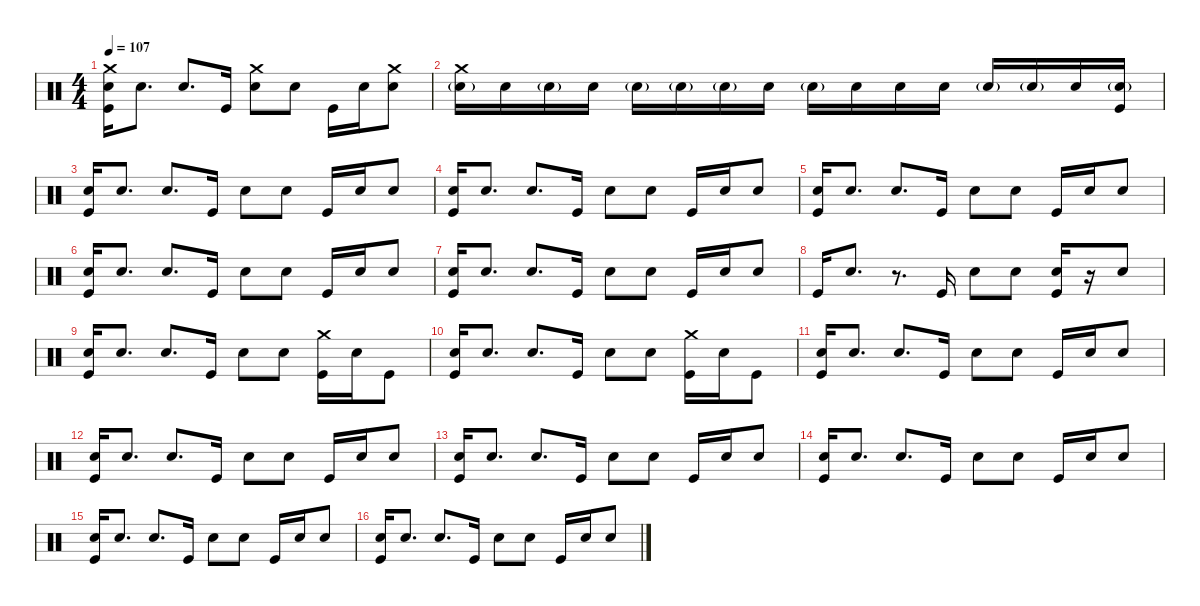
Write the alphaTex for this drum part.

\defaultSystemsLayout 4
\hideDynamics
\bracketExtendMode nobrackets
\singleTrackTrackNamePolicy hidden
\multiTrackTrackNamePolicy hidden
\firstSystemTrackNameMode fullname
\firstSystemTrackNameOrientation horizontal
\otherSystemsTrackNameOrientation horizontal
\track ("Mitch" "drm.") {instrument percussion}
\staff {score}
\articulation defaults
\ts (4 4)
\tempo 107
\clef neutral
\ks c
("Snare (hit) 2" "Crash medium (hit)" "Kick (hit)").16{dy f beam Down} "Snare (hit) 2".8{d beam Down} "Snare (hit) 2".8{d beam Up} "Kick (hit)".16{beam Up} ("Snare (hit) 2" "Crash medium (hit)").8{beam Down} "Snare (hit) 2".8{beam Down} "Kick (hit)".16{beam Down} "Snare (hit) 2".16{beam Down} ("Snare (hit) 2" "Crash medium (hit)").8{beam Down} |
("Crash medium (hit)" "Snare (hit) 2"{g}).16{beam Down} "Snare (hit) 2".16{beam Down} "Snare (hit) 2"{g}.16{beam Down} "Snare (hit) 2".16{beam Down} "Snare (hit) 2"{g}.16{beam Down} "Snare (hit) 2"{g}.16{beam Down} "Snare (hit) 2"{g}.16{beam Down} "Snare (hit) 2".16{beam Down} "Snare (hit) 2"{g}.16{beam Down} "Snare (hit) 2".16{beam Down} "Snare (hit) 2".16{beam Down} "Snare (hit) 2".16{beam Down} "Snare (hit) 2"{g}.16{beam Up} "Snare (hit) 2"{g}.16{beam Up} "Snare (hit) 2".16{beam Up} ("Snare (hit) 2"{g} "Kick (hit)").16{beam Up} |
("Snare (hit) 2" "Kick (hit)").16{beam Up} "Snare (hit) 2".8{d beam Up} "Snare (hit) 2".8{d beam Up} "Kick (hit)".16{beam Up} "Snare (hit) 2".8{beam Down} "Snare (hit) 2".8{beam Down} "Kick (hit)".16{beam Up} "Snare (hit) 2".16{beam Up} "Snare (hit) 2".8{beam Up} |
("Snare (hit) 2" "Kick (hit)").16{beam Up} "Snare (hit) 2".8{d beam Up} "Snare (hit) 2".8{d beam Up} "Kick (hit)".16{beam Up} "Snare (hit) 2".8{beam Down} "Snare (hit) 2".8{beam Down} "Kick (hit)".16{beam Up} "Snare (hit) 2".16{beam Up} "Snare (hit) 2".8{beam Up} |
("Snare (hit) 2" "Kick (hit)").16{beam Up} "Snare (hit) 2".8{d beam Up} "Snare (hit) 2".8{d beam Up} "Kick (hit)".16{beam Up} "Snare (hit) 2".8{beam Down} "Snare (hit) 2".8{beam Down} "Kick (hit)".16{beam Up} "Snare (hit) 2".16{beam Up} "Snare (hit) 2".8{beam Up} |
("Snare (hit) 2" "Kick (hit)").16{beam Up} "Snare (hit) 2".8{d beam Up} "Snare (hit) 2".8{d beam Up} "Kick (hit)".16{beam Up} "Snare (hit) 2".8{beam Down} "Snare (hit) 2".8{beam Down} "Kick (hit)".16{beam Up} "Snare (hit) 2".16{beam Up} "Snare (hit) 2".8{beam Up} |
("Snare (hit) 2" "Kick (hit)").16{beam Up} "Snare (hit) 2".8{d beam Up} "Snare (hit) 2".8{d beam Up} "Kick (hit)".16{beam Up} "Snare (hit) 2".8{beam Down} "Snare (hit) 2".8{beam Down} "Kick (hit)".16{beam Up} "Snare (hit) 2".16{beam Up} "Snare (hit) 2".8{beam Up} |
"Kick (hit)".16{beam Up} "Snare (hit) 2".8{d beam Up} r.8{d beam Up} "Kick (hit)".16{beam Up} "Snare (hit) 2".8{beam Down} "Snare (hit) 2".8{beam Down} ("Snare (hit) 2" "Kick (hit)").16{beam Up} r.16{beam Up} "Snare (hit) 2".8{beam Up} |
("Snare (hit) 2" "Kick (hit)").16{beam Up} "Snare (hit) 2".8{d beam Up} "Snare (hit) 2".8{d beam Up} "Kick (hit)".16{beam Up} "Snare (hit) 2".8{beam Down} "Snare (hit) 2".8{beam Down} ("Crash medium (hit)" "Kick (hit)").16{beam Down} "Snare (hit) 2".16{beam Down} "Kick (hit)".8{beam Down} |
("Snare (hit) 2" "Kick (hit)").16{beam Up} "Snare (hit) 2".8{d beam Up} "Snare (hit) 2".8{d beam Up} "Kick (hit)".16{beam Up} "Snare (hit) 2".8{beam Down} "Snare (hit) 2".8{beam Down} ("Crash medium (hit)" "Kick (hit)").16{beam Down} "Snare (hit) 2".16{beam Down} "Kick (hit)".8{beam Down} |
("Snare (hit) 2" "Kick (hit)").16{beam Up} "Snare (hit) 2".8{d beam Up} "Snare (hit) 2".8{d beam Up} "Kick (hit)".16{beam Up} "Snare (hit) 2".8{beam Down} "Snare (hit) 2".8{beam Down} "Kick (hit)".16{beam Up} "Snare (hit) 2".16{beam Up} "Snare (hit) 2".8{beam Up} |
("Snare (hit) 2" "Kick (hit)").16{beam Up} "Snare (hit) 2".8{d beam Up} "Snare (hit) 2".8{d beam Up} "Kick (hit)".16{beam Up} "Snare (hit) 2".8{beam Down} "Snare (hit) 2".8{beam Down} "Kick (hit)".16{beam Up} "Snare (hit) 2".16{beam Up} "Snare (hit) 2".8{beam Up} |
("Snare (hit) 2" "Kick (hit)").16{beam Up} "Snare (hit) 2".8{d beam Up} "Snare (hit) 2".8{d beam Up} "Kick (hit)".16{beam Up} "Snare (hit) 2".8{beam Down} "Snare (hit) 2".8{beam Down} "Kick (hit)".16{beam Up} "Snare (hit) 2".16{beam Up} "Snare (hit) 2".8{beam Up} |
("Snare (hit) 2" "Kick (hit)").16{beam Up} "Snare (hit) 2".8{d beam Up} "Snare (hit) 2".8{d beam Up} "Kick (hit)".16{beam Up} "Snare (hit) 2".8{beam Down} "Snare (hit) 2".8{beam Down} "Kick (hit)".16{beam Up} "Snare (hit) 2".16{beam Up} "Snare (hit) 2".8{beam Up} |
("Snare (hit) 2" "Kick (hit)").16{beam Up} "Snare (hit) 2".8{d beam Up} "Snare (hit) 2".8{d beam Up} "Kick (hit)".16{beam Up} "Snare (hit) 2".8{beam Down} "Snare (hit) 2".8{beam Down} "Kick (hit)".16{beam Up} "Snare (hit) 2".16{beam Up} "Snare (hit) 2".8{beam Up} |
("Snare (hit) 2" "Kick (hit)").16{beam Up} "Snare (hit) 2".8{d beam Up} "Snare (hit) 2".8{d beam Up} "Kick (hit)".16{beam Up} "Snare (hit) 2".8{beam Down} "Snare (hit) 2".8{beam Down} "Kick (hit)".16{beam Up} "Snare (hit) 2".16{beam Up} "Snare (hit) 2".8{beam Up}
